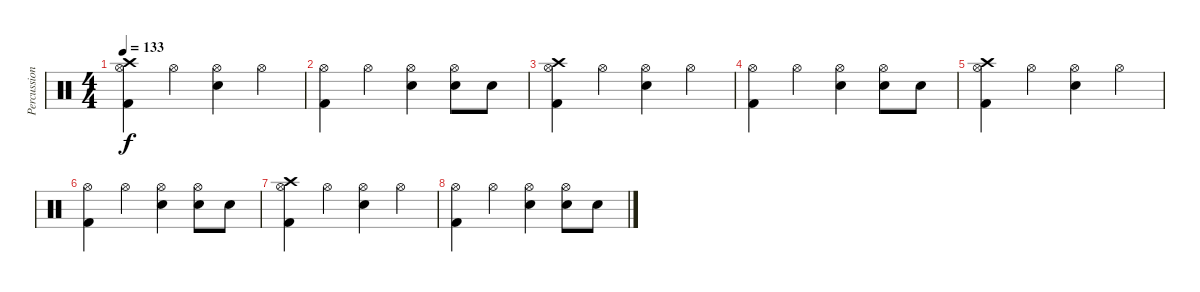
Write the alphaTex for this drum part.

\track ("Percussions" "Percussion") {instrument percussion}
\staff {score}
\articulation defaults
\ts (4 4)
\tempo 133
\clef neutral
\ks c
("Crash high (hit)" "Hi-Hat (open)" "Kick (hit) 2").4{dy f} "Hi-Hat (open)".4 ("Hi-Hat (open)" "Electric Snare (hit)").4 "Hi-Hat (open)".4 |
("Hi-Hat (open)" "Kick (hit) 2").4 "Hi-Hat (open)".4 ("Hi-Hat (open)" "Electric Snare (hit)").4 ("Hi-Hat (open)" "Electric Snare (hit)").8 "Electric Snare (hit)".8 |
("Crash high (hit)" "Hi-Hat (open)" "Kick (hit) 2").4 "Hi-Hat (open)".4 ("Hi-Hat (open)" "Electric Snare (hit)").4 "Hi-Hat (open)".4 |
("Hi-Hat (open)" "Kick (hit) 2").4 "Hi-Hat (open)".4 ("Hi-Hat (open)" "Electric Snare (hit)").4 ("Hi-Hat (open)" "Electric Snare (hit)").8 "Electric Snare (hit)".8 |
("Crash high (hit)" "Hi-Hat (open)" "Kick (hit) 2").4 "Hi-Hat (open)".4 ("Hi-Hat (open)" "Electric Snare (hit)").4 "Hi-Hat (open)".4 |
("Hi-Hat (open)" "Kick (hit) 2").4 "Hi-Hat (open)".4 ("Hi-Hat (open)" "Electric Snare (hit)").4 ("Hi-Hat (open)" "Electric Snare (hit)").8 "Electric Snare (hit)".8 |
("Crash high (hit)" "Hi-Hat (open)" "Kick (hit) 2").4 "Hi-Hat (open)".4 ("Hi-Hat (open)" "Electric Snare (hit)").4 "Hi-Hat (open)".4 |
("Hi-Hat (open)" "Kick (hit) 2").4 "Hi-Hat (open)".4 ("Hi-Hat (open)" "Electric Snare (hit)").4 ("Hi-Hat (open)" "Electric Snare (hit)").8 "Electric Snare (hit)".8
